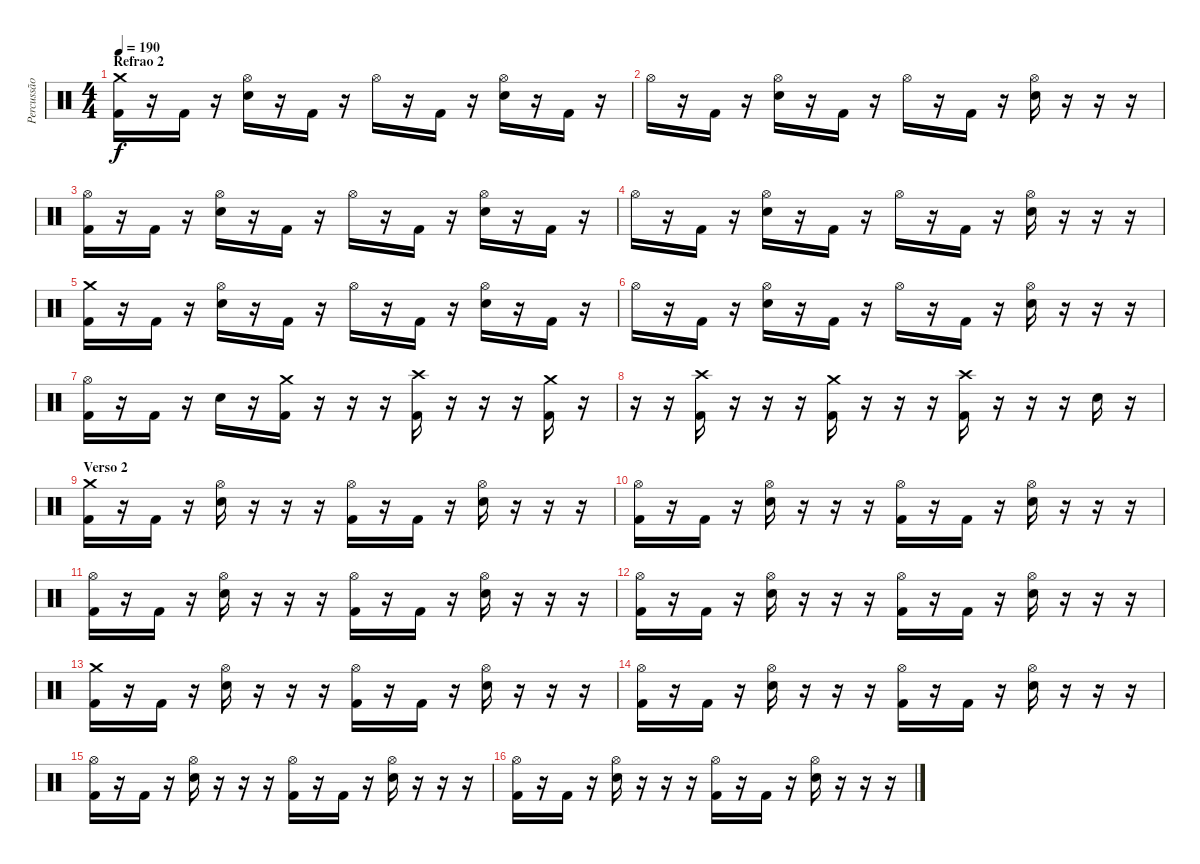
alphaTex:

\track ("Percussão" "Percussão") {instrument percussion}
\staff {score}
\articulation defaults
\ts (4 4)
\section ("" "Refrao 2")
\tempo 190
\clef neutral
\ks c
("Crash medium (hit)" "Kick (hit) 2").16{dy f} r.16 "Kick (hit) 2".16 r.16 ("Hi-Hat (open)" "Electric Snare (hit)").16 r.16 "Kick (hit) 2".16 r.16 "Hi-Hat (open)".16 r.16 "Kick (hit) 2".16 r.16 ("Hi-Hat (open)" "Electric Snare (hit)").16 r.16 "Kick (hit) 2".16 r.16 |
"Hi-Hat (open)".16 r.16 "Kick (hit) 2".16 r.16 ("Hi-Hat (open)" "Electric Snare (hit)").16 r.16 "Kick (hit) 2".16 r.16 "Hi-Hat (open)".16 r.16 "Kick (hit) 2".16 r.16 ("Hi-Hat (open)" "Electric Snare (hit)").16 r.16 r.16 r.16 |
("Hi-Hat (open)" "Kick (hit) 2").16 r.16 "Kick (hit) 2".16 r.16 ("Hi-Hat (open)" "Electric Snare (hit)").16 r.16 "Kick (hit) 2".16 r.16 "Hi-Hat (open)".16 r.16 "Kick (hit) 2".16 r.16 ("Hi-Hat (open)" "Electric Snare (hit)").16 r.16 "Kick (hit) 2".16 r.16 |
"Hi-Hat (open)".16 r.16 "Kick (hit) 2".16 r.16 ("Hi-Hat (open)" "Electric Snare (hit)").16 r.16 "Kick (hit) 2".16 r.16 "Hi-Hat (open)".16 r.16 "Kick (hit) 2".16 r.16 ("Hi-Hat (open)" "Electric Snare (hit)").16 r.16 r.16 r.16 |
("Crash medium (hit)" "Kick (hit) 2").16 r.16 "Kick (hit) 2".16 r.16 ("Hi-Hat (open)" "Electric Snare (hit)").16 r.16 "Kick (hit) 2".16 r.16 "Hi-Hat (open)".16 r.16 "Kick (hit) 2".16 r.16 ("Hi-Hat (open)" "Electric Snare (hit)").16 r.16 "Kick (hit) 2".16 r.16 |
"Hi-Hat (open)".16 r.16 "Kick (hit) 2".16 r.16 ("Hi-Hat (open)" "Electric Snare (hit)").16 r.16 "Kick (hit) 2".16 r.16 "Hi-Hat (open)".16 r.16 "Kick (hit) 2".16 r.16 ("Hi-Hat (open)" "Electric Snare (hit)").16 r.16 r.16 r.16 |
("Hi-Hat (open)" "Kick (hit) 2").16 r.16 "Kick (hit) 2".16 r.16 "Electric Snare (hit)".16 r.16 ("Crash medium (hit)" "Kick (hit) 2").16 r.16 r.16 r.16 ("Crash high (hit)" "Kick (hit) 2").16 r.16 r.16 r.16 ("Crash medium (hit)" "Kick (hit) 2").16 r.16 |
r.16 r.16 ("Crash high (hit)" "Kick (hit) 2").16 r.16 r.16 r.16 ("Crash medium (hit)" "Kick (hit) 2").16 r.16 r.16 r.16 ("Crash high (hit)" "Kick (hit) 2").16 r.16 r.16 r.16 "Electric Snare (hit)".16 r.16 |
\section ("" "Verso 2")
("Crash medium (hit)" "Kick (hit) 2").16 r.16 "Kick (hit) 2".16 r.16 ("Hi-Hat (open)" "Electric Snare (hit)").16 r.16 r.16 r.16 ("Hi-Hat (open)" "Kick (hit) 2").16 r.16 "Kick (hit) 2".16 r.16 ("Hi-Hat (open)" "Electric Snare (hit)").16 r.16 r.16 r.16 |
("Hi-Hat (open)" "Kick (hit) 2").16 r.16 "Kick (hit) 2".16 r.16 ("Hi-Hat (open)" "Electric Snare (hit)").16 r.16 r.16 r.16 ("Hi-Hat (open)" "Kick (hit) 2").16 r.16 "Kick (hit) 2".16 r.16 ("Hi-Hat (open)" "Electric Snare (hit)").16 r.16 r.16 r.16 |
("Hi-Hat (open)" "Kick (hit) 2").16 r.16 "Kick (hit) 2".16 r.16 ("Hi-Hat (open)" "Electric Snare (hit)").16 r.16 r.16 r.16 ("Hi-Hat (open)" "Kick (hit) 2").16 r.16 "Kick (hit) 2".16 r.16 ("Hi-Hat (open)" "Electric Snare (hit)").16 r.16 r.16 r.16 |
("Hi-Hat (open)" "Kick (hit) 2").16 r.16 "Kick (hit) 2".16 r.16 ("Hi-Hat (open)" "Electric Snare (hit)").16 r.16 r.16 r.16 ("Hi-Hat (open)" "Kick (hit) 2").16 r.16 "Kick (hit) 2".16 r.16 ("Hi-Hat (open)" "Electric Snare (hit)").16 r.16 r.16 r.16 |
("Crash medium (hit)" "Kick (hit) 2").16 r.16 "Kick (hit) 2".16 r.16 ("Hi-Hat (open)" "Electric Snare (hit)").16 r.16 r.16 r.16 ("Hi-Hat (open)" "Kick (hit) 2").16 r.16 "Kick (hit) 2".16 r.16 ("Hi-Hat (open)" "Electric Snare (hit)").16 r.16 r.16 r.16 |
("Hi-Hat (open)" "Kick (hit) 2").16 r.16 "Kick (hit) 2".16 r.16 ("Hi-Hat (open)" "Electric Snare (hit)").16 r.16 r.16 r.16 ("Hi-Hat (open)" "Kick (hit) 2").16 r.16 "Kick (hit) 2".16 r.16 ("Hi-Hat (open)" "Electric Snare (hit)").16 r.16 r.16 r.16 |
("Hi-Hat (open)" "Kick (hit) 2").16 r.16 "Kick (hit) 2".16 r.16 ("Hi-Hat (open)" "Electric Snare (hit)").16 r.16 r.16 r.16 ("Hi-Hat (open)" "Kick (hit) 2").16 r.16 "Kick (hit) 2".16 r.16 ("Hi-Hat (open)" "Electric Snare (hit)").16 r.16 r.16 r.16 |
("Hi-Hat (open)" "Kick (hit) 2").16 r.16 "Kick (hit) 2".16 r.16 ("Hi-Hat (open)" "Electric Snare (hit)").16 r.16 r.16 r.16 ("Hi-Hat (open)" "Kick (hit) 2").16 r.16 "Kick (hit) 2".16 r.16 ("Hi-Hat (open)" "Electric Snare (hit)").16 r.16 r.16 r.16
